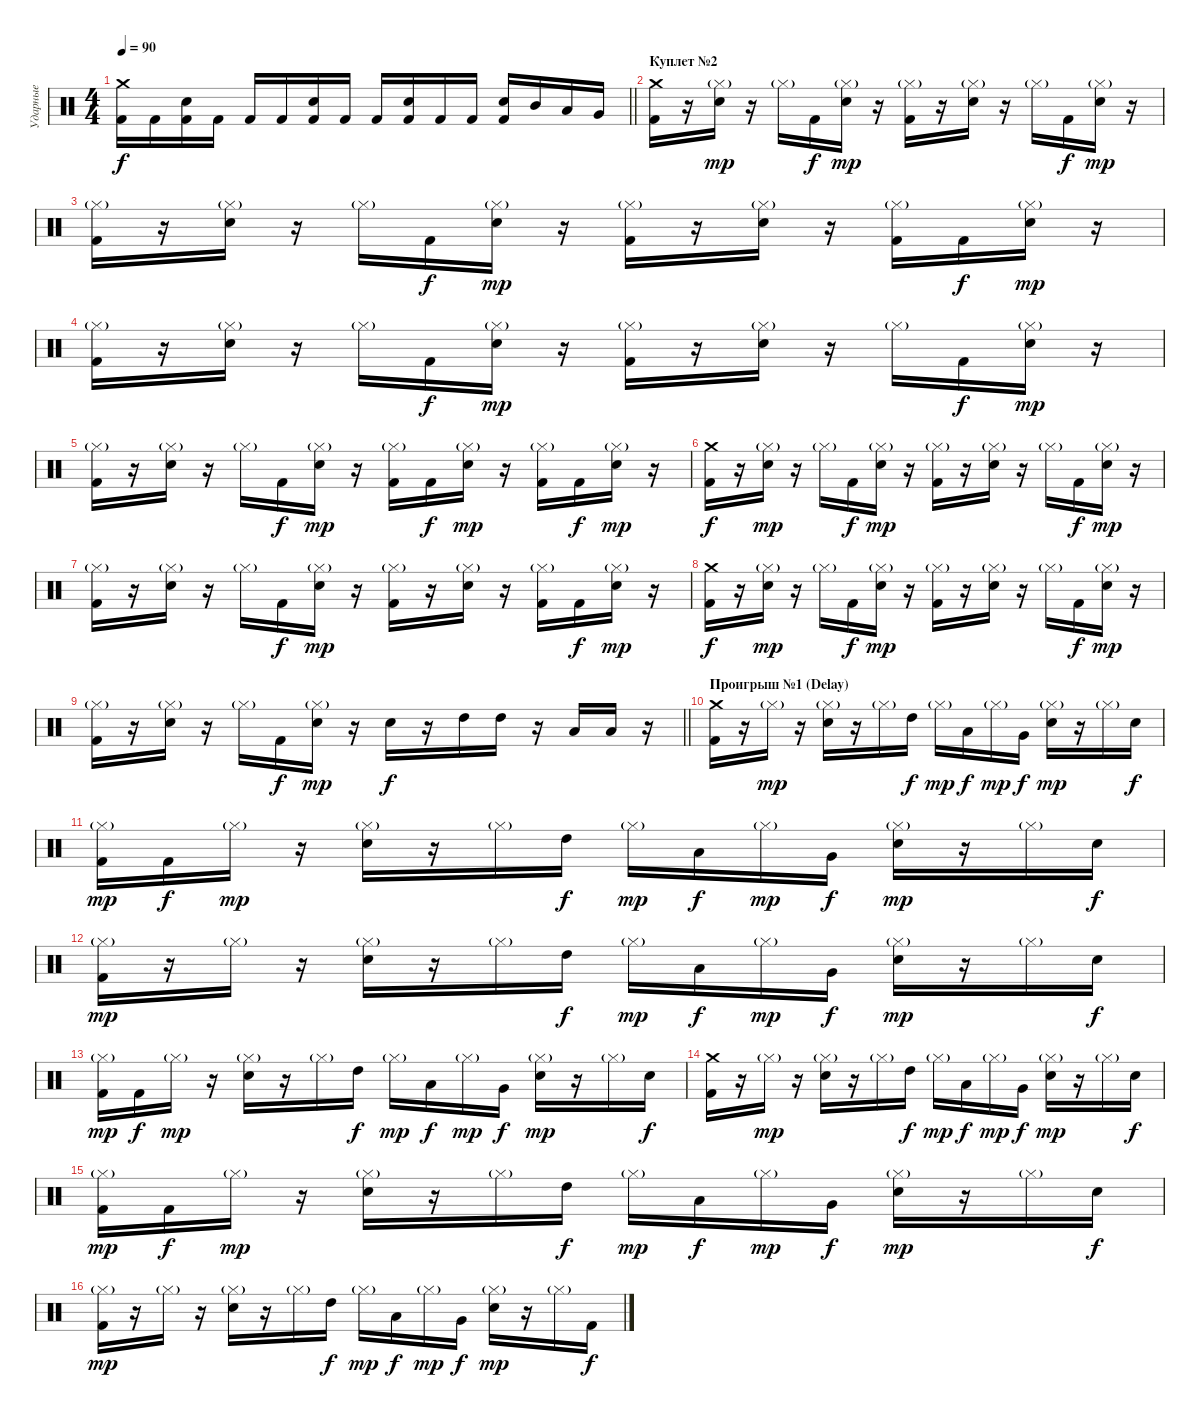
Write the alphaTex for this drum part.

\track ("Ударные" "Ударные") {instrument percussion}
\staff {score}
\articulation defaults
\ts (4 4)
\tempo 90
\clef neutral
\barLineRight lightlight
\ks c
("Crash medium (hit)" "Kick (hit) 2").16{dy f} "Kick (hit) 2".16 ("Snare (hit) 2" "Kick (hit) 2").16 "Kick (hit) 2".16 "Kick (hit) 2".16 "Kick (hit) 2".16 ("Snare (hit) 2" "Kick (hit) 2").16 "Kick (hit) 2".16 "Kick (hit) 2".16 ("Snare (hit) 2" "Kick (hit) 2").16 "Kick (hit) 2".16 "Kick (hit) 2".16 ("Snare (hit) 2" "Kick (hit) 2").16 "Mid Tom (hit)".16 "Low Tom (hit)".16 "Very Low Tom (hit)".16 |
\section ("" "Куплет №2")
("Crash medium (hit)" "Kick (hit) 2").16 r.16 ("Snare (hit) 2" "Hi-Hat (closed)"{g}).16{dy mp} r.16 "Hi-Hat (closed)"{g}.16 "Kick (hit) 2".16{dy f} ("Snare (hit) 2" "Hi-Hat (closed)"{g}).16{dy mp} r.16 ("Hi-Hat (closed)"{g} "Kick (hit) 2").16 r.16 ("Snare (hit) 2" "Hi-Hat (closed)"{g}).16 r.16 "Hi-Hat (closed)"{g}.16 "Kick (hit) 2".16{dy f} ("Snare (hit) 2" "Hi-Hat (closed)"{g}).16{dy mp} r.16 |
("Hi-Hat (closed)"{g} "Kick (hit) 2").16 r.16 ("Snare (hit) 2" "Hi-Hat (closed)"{g}).16 r.16 "Hi-Hat (closed)"{g}.16 "Kick (hit) 2".16{dy f} ("Snare (hit) 2" "Hi-Hat (closed)"{g}).16{dy mp} r.16 ("Hi-Hat (closed)"{g} "Kick (hit) 2").16 r.16 ("Snare (hit) 2" "Hi-Hat (closed)"{g}).16 r.16 ("Hi-Hat (closed)"{g} "Kick (hit) 2").16 "Kick (hit) 2".16{dy f} ("Snare (hit) 2" "Hi-Hat (closed)"{g}).16{dy mp} r.16 |
("Hi-Hat (closed)"{g} "Kick (hit) 2").16 r.16 ("Snare (hit) 2" "Hi-Hat (closed)"{g}).16 r.16 "Hi-Hat (closed)"{g}.16 "Kick (hit) 2".16{dy f} ("Snare (hit) 2" "Hi-Hat (closed)"{g}).16{dy mp} r.16 ("Hi-Hat (closed)"{g} "Kick (hit) 2").16 r.16 ("Snare (hit) 2" "Hi-Hat (closed)"{g}).16 r.16 "Hi-Hat (closed)"{g}.16 "Kick (hit) 2".16{dy f} ("Snare (hit) 2" "Hi-Hat (closed)"{g}).16{dy mp} r.16 |
("Hi-Hat (closed)"{g} "Kick (hit) 2").16 r.16 ("Snare (hit) 2" "Hi-Hat (closed)"{g}).16 r.16 "Hi-Hat (closed)"{g}.16 "Kick (hit) 2".16{dy f} ("Snare (hit) 2" "Hi-Hat (closed)"{g}).16{dy mp} r.16 ("Hi-Hat (closed)"{g} "Kick (hit) 2").16 "Kick (hit) 2".16{dy f} ("Snare (hit) 2" "Hi-Hat (closed)"{g}).16{dy mp} r.16 ("Hi-Hat (closed)"{g} "Kick (hit) 2").16 "Kick (hit) 2".16{dy f} ("Snare (hit) 2" "Hi-Hat (closed)"{g}).16{dy mp} r.16 |
("Crash medium (hit)" "Kick (hit) 2").16{dy f} r.16 ("Snare (hit) 2" "Hi-Hat (closed)"{g}).16{dy mp} r.16 "Hi-Hat (closed)"{g}.16 "Kick (hit) 2".16{dy f} ("Snare (hit) 2" "Hi-Hat (closed)"{g}).16{dy mp} r.16 ("Hi-Hat (closed)"{g} "Kick (hit) 2").16 r.16 ("Snare (hit) 2" "Hi-Hat (closed)"{g}).16 r.16 "Hi-Hat (closed)"{g}.16 "Kick (hit) 2".16{dy f} ("Snare (hit) 2" "Hi-Hat (closed)"{g}).16{dy mp} r.16 |
("Hi-Hat (closed)"{g} "Kick (hit) 2").16 r.16 ("Snare (hit) 2" "Hi-Hat (closed)"{g}).16 r.16 "Hi-Hat (closed)"{g}.16 "Kick (hit) 2".16{dy f} ("Snare (hit) 2" "Hi-Hat (closed)"{g}).16{dy mp} r.16 ("Hi-Hat (closed)"{g} "Kick (hit) 2").16 r.16 ("Snare (hit) 2" "Hi-Hat (closed)"{g}).16 r.16 ("Hi-Hat (closed)"{g} "Kick (hit) 2").16 "Kick (hit) 2".16{dy f} ("Snare (hit) 2" "Hi-Hat (closed)"{g}).16{dy mp} r.16 |
("Crash medium (hit)" "Kick (hit) 2").16{dy f} r.16 ("Snare (hit) 2" "Hi-Hat (closed)"{g}).16{dy mp} r.16 "Hi-Hat (closed)"{g}.16 "Kick (hit) 2".16{dy f} ("Snare (hit) 2" "Hi-Hat (closed)"{g}).16{dy mp} r.16 ("Hi-Hat (closed)"{g} "Kick (hit) 2").16 r.16 ("Snare (hit) 2" "Hi-Hat (closed)"{g}).16 r.16 "Hi-Hat (closed)"{g}.16 "Kick (hit) 2".16{dy f} ("Snare (hit) 2" "Hi-Hat (closed)"{g}).16{dy mp} r.16 |
\barLineRight lightlight
("Hi-Hat (closed)"{g} "Kick (hit) 2").16 r.16 ("Snare (hit) 2" "Hi-Hat (closed)"{g}).16 r.16 "Hi-Hat (closed)"{g}.16 "Kick (hit) 2".16{dy f} ("Snare (hit) 2" "Hi-Hat (closed)"{g}).16{dy mp} r.16 "Snare (hit) 2".16{dy f} r.16 "High Tom (hit)".16 "High Tom (hit)".16 r.16 "Low Tom (hit)".16 "Low Tom (hit)".16 r.16 |
\section ("" "Проигрыш №1 (Delay)")
("Crash medium (hit)" "Kick (hit) 2").16{volume 15} r.16 "Hi-Hat (closed)"{g}.16{dy mp} r.16 ("Snare (hit) 2" "Hi-Hat (closed)"{g}).16 r.16 "Hi-Hat (closed)"{g}.16 "High Tom (hit)".16{dy f} "Hi-Hat (closed)"{g}.16{dy mp} "Low Tom (hit)".16{dy f} "Hi-Hat (closed)"{g}.16{dy mp} "Very Low Tom (hit)".16{dy f} ("Snare (hit) 2" "Hi-Hat (closed)"{g}).16{dy mp} r.16 "Hi-Hat (closed)"{g}.16 "Snare (hit) 2".16{dy f} |
("Hi-Hat (closed)"{g} "Kick (hit) 2").16{dy mp} "Kick (hit) 2".16{dy f} "Hi-Hat (closed)"{g}.16{dy mp} r.16 ("Snare (hit) 2" "Hi-Hat (closed)"{g}).16 r.16 "Hi-Hat (closed)"{g}.16 "High Tom (hit)".16{dy f} "Hi-Hat (closed)"{g}.16{dy mp} "Low Tom (hit)".16{dy f} "Hi-Hat (closed)"{g}.16{dy mp} "Very Low Tom (hit)".16{dy f} ("Snare (hit) 2" "Hi-Hat (closed)"{g}).16{dy mp} r.16 "Hi-Hat (closed)"{g}.16 "Snare (hit) 2".16{dy f} |
("Hi-Hat (closed)"{g} "Kick (hit) 2").16{dy mp} r.16 "Hi-Hat (closed)"{g}.16 r.16 ("Snare (hit) 2" "Hi-Hat (closed)"{g}).16 r.16 "Hi-Hat (closed)"{g}.16 "High Tom (hit)".16{dy f} "Hi-Hat (closed)"{g}.16{dy mp} "Low Tom (hit)".16{dy f} "Hi-Hat (closed)"{g}.16{dy mp} "Very Low Tom (hit)".16{dy f} ("Snare (hit) 2" "Hi-Hat (closed)"{g}).16{dy mp} r.16 "Hi-Hat (closed)"{g}.16 "Snare (hit) 2".16{dy f} |
("Hi-Hat (closed)"{g} "Kick (hit) 2").16{dy mp} "Kick (hit) 2".16{dy f} "Hi-Hat (closed)"{g}.16{dy mp} r.16 ("Snare (hit) 2" "Hi-Hat (closed)"{g}).16 r.16 "Hi-Hat (closed)"{g}.16 "High Tom (hit)".16{dy f} "Hi-Hat (closed)"{g}.16{dy mp} "Low Tom (hit)".16{dy f} "Hi-Hat (closed)"{g}.16{dy mp} "Very Low Tom (hit)".16{dy f} ("Snare (hit) 2" "Hi-Hat (closed)"{g}).16{dy mp} r.16 "Hi-Hat (closed)"{g}.16 "Snare (hit) 2".16{dy f} |
("Crash medium (hit)" "Kick (hit) 2").16 r.16 "Hi-Hat (closed)"{g}.16{dy mp} r.16 ("Snare (hit) 2" "Hi-Hat (closed)"{g}).16 r.16 "Hi-Hat (closed)"{g}.16 "High Tom (hit)".16{dy f} "Hi-Hat (closed)"{g}.16{dy mp} "Low Tom (hit)".16{dy f} "Hi-Hat (closed)"{g}.16{dy mp} "Very Low Tom (hit)".16{dy f} ("Snare (hit) 2" "Hi-Hat (closed)"{g}).16{dy mp} r.16 "Hi-Hat (closed)"{g}.16 "Snare (hit) 2".16{dy f} |
("Hi-Hat (closed)"{g} "Kick (hit) 2").16{dy mp} "Kick (hit) 2".16{dy f} "Hi-Hat (closed)"{g}.16{dy mp} r.16 ("Snare (hit) 2" "Hi-Hat (closed)"{g}).16 r.16 "Hi-Hat (closed)"{g}.16 "High Tom (hit)".16{dy f} "Hi-Hat (closed)"{g}.16{dy mp} "Low Tom (hit)".16{dy f} "Hi-Hat (closed)"{g}.16{dy mp} "Very Low Tom (hit)".16{dy f} ("Snare (hit) 2" "Hi-Hat (closed)"{g}).16{dy mp} r.16 "Hi-Hat (closed)"{g}.16 "Snare (hit) 2".16{dy f} |
("Hi-Hat (closed)"{g} "Kick (hit) 2").16{dy mp} r.16 "Hi-Hat (closed)"{g}.16 r.16 ("Snare (hit) 2" "Hi-Hat (closed)"{g}).16 r.16 "Hi-Hat (closed)"{g}.16 "High Tom (hit)".16{dy f} "Hi-Hat (closed)"{g}.16{dy mp} "Low Tom (hit)".16{dy f} "Hi-Hat (closed)"{g}.16{dy mp} "Very Low Tom (hit)".16{dy f} ("Snare (hit) 2" "Hi-Hat (closed)"{g}).16{dy mp} r.16 "Hi-Hat (closed)"{g}.16 "Kick (hit) 2".16{dy f}
